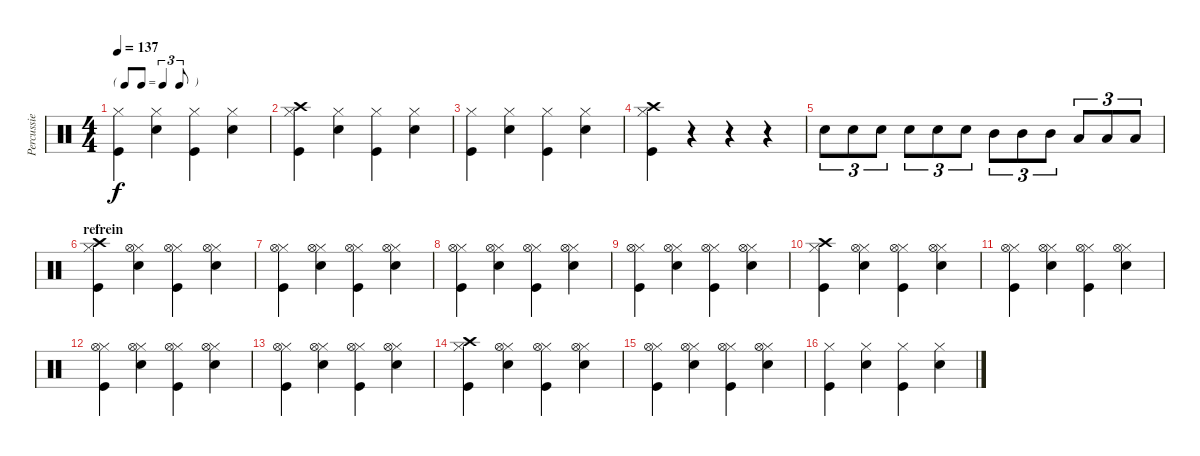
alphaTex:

\track ("Percussie" "Percussie") {instrument percussion}
\staff {score}
\articulation defaults
\ts (4 4)
\tf triplet8th
\tempo 137
\clef neutral
\ks c
("Hi-Hat (closed)" "Kick (hit)").4{dy f} ("Hi-Hat (closed)" "Snare (hit) 2").4 ("Hi-Hat (closed)" "Kick (hit)").4 ("Hi-Hat (closed)" "Snare (hit) 2").4 |
("Hi-Hat (closed)" "Crash high (hit)" "Kick (hit)").4 ("Hi-Hat (closed)" "Snare (hit) 2").4 ("Hi-Hat (closed)" "Kick (hit)").4 ("Hi-Hat (closed)" "Snare (hit) 2").4 |
("Hi-Hat (closed)" "Kick (hit)").4 ("Hi-Hat (closed)" "Snare (hit) 2").4 ("Hi-Hat (closed)" "Kick (hit)").4 ("Hi-Hat (closed)" "Snare (hit) 2").4 |
("Hi-Hat (closed)" "Crash high (hit)" "Kick (hit)").4 r.4 r.4 r.4 |
"Snare (hit) 2".8{tu (3 2)} "Snare (hit) 2".8{tu (3 2)} "Snare (hit) 2".8{tu (3 2)} "Snare (hit) 2".8{tu (3 2)} "Snare (hit) 2".8{tu (3 2)} "Snare (hit) 2".8{tu (3 2)} "Mid Tom (hit)".8{tu (3 2)} "Mid Tom (hit)".8{tu (3 2)} "Mid Tom (hit)".8{tu (3 2)} "Low Tom (hit)".8{tu (3 2)} "Low Tom (hit)".8{tu (3 2)} "Low Tom (hit)".8{tu (3 2)} |
\section ("" "refrein")
("Hi-Hat (closed)" "Crash high (hit)" "Kick (hit)").4 ("Hi-Hat (closed)" "Hi-Hat (open)" "Snare (hit) 2").4 ("Hi-Hat (closed)" "Hi-Hat (open)" "Kick (hit)").4 ("Hi-Hat (closed)" "Hi-Hat (open)" "Snare (hit) 2").4 |
("Hi-Hat (closed)" "Hi-Hat (open)" "Kick (hit)").4 ("Hi-Hat (closed)" "Hi-Hat (open)" "Snare (hit) 2").4 ("Hi-Hat (closed)" "Hi-Hat (open)" "Kick (hit)").4 ("Hi-Hat (closed)" "Hi-Hat (open)" "Snare (hit) 2").4 |
("Hi-Hat (closed)" "Hi-Hat (open)" "Kick (hit)").4 ("Hi-Hat (closed)" "Hi-Hat (open)" "Snare (hit) 2").4 ("Hi-Hat (closed)" "Hi-Hat (open)" "Kick (hit)").4 ("Hi-Hat (closed)" "Hi-Hat (open)" "Snare (hit) 2").4 |
("Hi-Hat (closed)" "Hi-Hat (open)" "Kick (hit)").4 ("Hi-Hat (closed)" "Hi-Hat (open)" "Snare (hit) 2").4 ("Hi-Hat (closed)" "Hi-Hat (open)" "Kick (hit)").4 ("Hi-Hat (closed)" "Hi-Hat (open)" "Snare (hit) 2").4 |
("Hi-Hat (closed)" "Crash high (hit)" "Kick (hit)").4 ("Hi-Hat (closed)" "Hi-Hat (open)" "Snare (hit) 2").4 ("Hi-Hat (closed)" "Hi-Hat (open)" "Kick (hit)").4 ("Hi-Hat (closed)" "Hi-Hat (open)" "Snare (hit) 2").4 |
("Hi-Hat (closed)" "Hi-Hat (open)" "Kick (hit)").4 ("Hi-Hat (closed)" "Hi-Hat (open)" "Snare (hit) 2").4 ("Hi-Hat (closed)" "Hi-Hat (open)" "Kick (hit)").4 ("Hi-Hat (closed)" "Hi-Hat (open)" "Snare (hit) 2").4 |
("Hi-Hat (closed)" "Hi-Hat (open)" "Kick (hit)").4 ("Hi-Hat (closed)" "Hi-Hat (open)" "Snare (hit) 2").4 ("Hi-Hat (closed)" "Hi-Hat (open)" "Kick (hit)").4 ("Hi-Hat (closed)" "Hi-Hat (open)" "Snare (hit) 2").4 |
("Hi-Hat (closed)" "Hi-Hat (open)" "Kick (hit)").4 ("Hi-Hat (closed)" "Hi-Hat (open)" "Snare (hit) 2").4 ("Hi-Hat (closed)" "Hi-Hat (open)" "Kick (hit)").4 ("Hi-Hat (closed)" "Hi-Hat (open)" "Snare (hit) 2").4 |
("Hi-Hat (closed)" "Crash high (hit)" "Kick (hit)").4 ("Hi-Hat (closed)" "Hi-Hat (open)" "Snare (hit) 2").4 ("Hi-Hat (closed)" "Hi-Hat (open)" "Kick (hit)").4 ("Hi-Hat (closed)" "Hi-Hat (open)" "Snare (hit) 2").4 |
("Hi-Hat (closed)" "Hi-Hat (open)" "Kick (hit)").4 ("Hi-Hat (closed)" "Hi-Hat (open)" "Snare (hit) 2").4 ("Hi-Hat (closed)" "Hi-Hat (open)" "Kick (hit)").4 ("Hi-Hat (closed)" "Hi-Hat (open)" "Snare (hit) 2").4 |
("Hi-Hat (closed)" "Kick (hit)").4 ("Hi-Hat (closed)" "Snare (hit) 2").4 ("Hi-Hat (closed)" "Kick (hit)").4 ("Hi-Hat (closed)" "Snare (hit) 2").4
